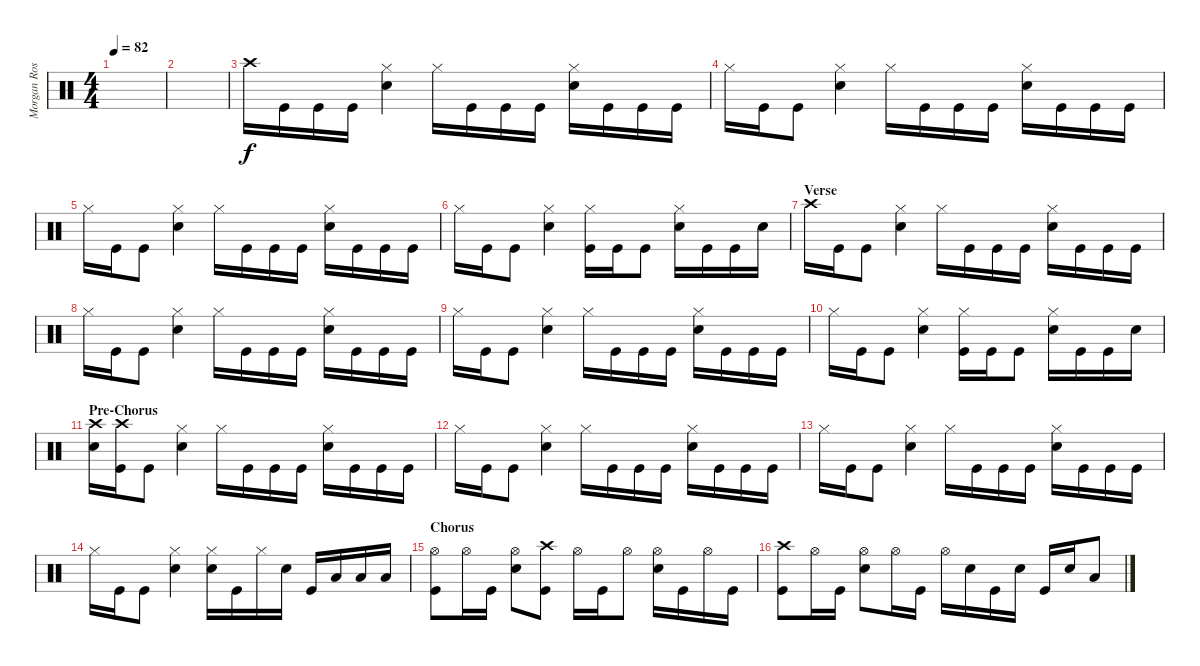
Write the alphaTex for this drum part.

\track ("Morgan Rose" "Morgan Ros") {instrument percussion}
\staff {score}
\articulation defaults
\ts (4 4)
\tempo 82
\clef neutral
\ks c
|
|
"Crash high (hit)".16 "Kick (hit)".16 "Kick (hit)".16 "Kick (hit)".16 ("Hi-Hat (closed)" "Snare (hit) 2").4 "Hi-Hat (closed)".16 "Kick (hit)".16 "Kick (hit)".16 "Kick (hit)".16 ("Hi-Hat (closed)" "Snare (hit) 2").16 "Kick (hit)".16 "Kick (hit)".16 "Kick (hit)".16 |
"Hi-Hat (closed)".16 "Kick (hit)".16 "Kick (hit)".8 ("Hi-Hat (closed)" "Snare (hit) 2").4 "Hi-Hat (closed)".16 "Kick (hit)".16 "Kick (hit)".16 "Kick (hit)".16 ("Hi-Hat (closed)" "Snare (hit) 2").16 "Kick (hit)".16 "Kick (hit)".16 "Kick (hit)".16 |
"Hi-Hat (closed)".16 "Kick (hit)".16 "Kick (hit)".8 ("Hi-Hat (closed)" "Snare (hit) 2").4 "Hi-Hat (closed)".16 "Kick (hit)".16 "Kick (hit)".16 "Kick (hit)".16 ("Hi-Hat (closed)" "Snare (hit) 2").16 "Kick (hit)".16 "Kick (hit)".16 "Kick (hit)".16 |
"Hi-Hat (closed)".16 "Kick (hit)".16 "Kick (hit)".8 ("Hi-Hat (closed)" "Snare (hit) 2").4 ("Hi-Hat (closed)" "Kick (hit)").16 "Kick (hit)".16 "Kick (hit)".8 ("Hi-Hat (closed)" "Snare (hit) 2").16 "Kick (hit)".16 "Kick (hit)".16 "Snare (hit) 2".16 |
\section ("" "Verse")
"Crash high (hit)".16 "Kick (hit)".16 "Kick (hit)".8 ("Hi-Hat (closed)" "Snare (hit) 2").4 "Hi-Hat (closed)".16 "Kick (hit)".16 "Kick (hit)".16 "Kick (hit)".16 ("Hi-Hat (closed)" "Snare (hit) 2").16 "Kick (hit)".16 "Kick (hit)".16 "Kick (hit)".16 |
"Hi-Hat (closed)".16 "Kick (hit)".16 "Kick (hit)".8 ("Hi-Hat (closed)" "Snare (hit) 2").4 "Hi-Hat (closed)".16 "Kick (hit)".16 "Kick (hit)".16 "Kick (hit)".16 ("Hi-Hat (closed)" "Snare (hit) 2").16 "Kick (hit)".16 "Kick (hit)".16 "Kick (hit)".16 |
"Hi-Hat (closed)".16 "Kick (hit)".16 "Kick (hit)".8 ("Hi-Hat (closed)" "Snare (hit) 2").4 "Hi-Hat (closed)".16 "Kick (hit)".16 "Kick (hit)".16 "Kick (hit)".16 ("Hi-Hat (closed)" "Snare (hit) 2").16 "Kick (hit)".16 "Kick (hit)".16 "Kick (hit)".16 |
"Hi-Hat (closed)".16 "Kick (hit)".16 "Kick (hit)".8 ("Hi-Hat (closed)" "Snare (hit) 2").4 ("Hi-Hat (closed)" "Kick (hit)").16 "Kick (hit)".16 "Kick (hit)".8 ("Hi-Hat (closed)" "Snare (hit) 2").16 "Kick (hit)".16 "Kick (hit)".16 "Snare (hit) 2".16 |
\section ("" "Pre-Chorus")
("Crash high (hit)" "Snare (hit) 2").16 ("Crash high (hit)" "Kick (hit)").16 "Kick (hit)".8 ("Hi-Hat (closed)" "Snare (hit) 2").4 "Hi-Hat (closed)".16 "Kick (hit)".16 "Kick (hit)".16 "Kick (hit)".16 ("Hi-Hat (closed)" "Snare (hit) 2").16 "Kick (hit)".16 "Kick (hit)".16 "Kick (hit)".16 |
"Hi-Hat (closed)".16 "Kick (hit)".16 "Kick (hit)".8 ("Hi-Hat (closed)" "Snare (hit) 2").4 "Hi-Hat (closed)".16 "Kick (hit)".16 "Kick (hit)".16 "Kick (hit)".16 ("Hi-Hat (closed)" "Snare (hit) 2").16 "Kick (hit)".16 "Kick (hit)".16 "Kick (hit)".16 |
"Hi-Hat (closed)".16 "Kick (hit)".16 "Kick (hit)".8 ("Hi-Hat (closed)" "Snare (hit) 2").4 "Hi-Hat (closed)".16 "Kick (hit)".16 "Kick (hit)".16 "Kick (hit)".16 ("Hi-Hat (closed)" "Snare (hit) 2").16 "Kick (hit)".16 "Kick (hit)".16 "Kick (hit)".16 |
"Hi-Hat (closed)".16 "Kick (hit)".16 "Kick (hit)".8 ("Hi-Hat (closed)" "Snare (hit) 2").4 ("Hi-Hat (closed)" "Snare (hit) 2").16 "Kick (hit)".16 "Hi-Hat (closed)".16 "Snare (hit) 2".16 "Kick (hit)".16 "Low Tom (hit)".16 "Low Tom (hit)".16 "Low Tom (hit)".16 |
\section ("" "Chorus")
("Hi-Hat (open)" "Kick (hit)").8 "Hi-Hat (open)".16 "Kick (hit)".16 ("Hi-Hat (open)" "Snare (hit) 2").8 ("Crash high (hit)" "Kick (hit)").8 "Hi-Hat (open)".16 "Kick (hit)".16 "Hi-Hat (open)".8 ("Hi-Hat (open)" "Snare (hit) 2").16 "Kick (hit)".16 "Hi-Hat (open)".16 "Kick (hit)".16 |
("Crash high (hit)" "Kick (hit)").8 "Hi-Hat (open)".16 "Kick (hit)".16 ("Hi-Hat (open)" "Snare (hit) 2").8 "Hi-Hat (open)".16 "Kick (hit)".16 "Hi-Hat (open)".16 "Snare (hit) 2".16 "Kick (hit)".16 "Snare (hit) 2".16 "Kick (hit)".16 "Snare (hit) 2".16 "Low Tom (hit)".8
